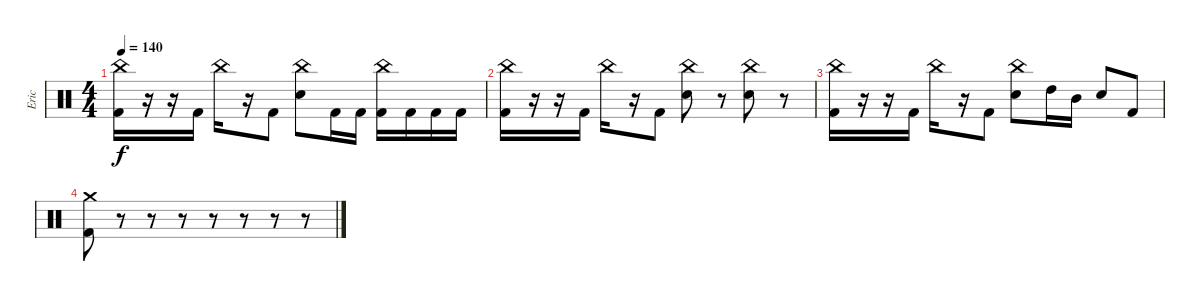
\track ("Eric" "Eric") {instrument percussion}
\staff {score}
\articulation defaults
\ts (4 4)
\tempo 140
\clef neutral
\ks c
("China (hit)" "Kick (hit) 2").16{dy f} r.16 r.16 "Kick (hit) 2".16 "China (hit)".16 r.16 "Kick (hit) 2".8 ("China (hit)" "Electric Snare (hit)").8 "Kick (hit) 2".16 "Kick (hit) 2".16 ("China (hit)" "Kick (hit) 2").16 "Kick (hit) 2".16 "Kick (hit) 2".16 "Kick (hit) 2".16 |
("China (hit)" "Kick (hit) 2").16 r.16 r.16 "Kick (hit) 2".16 "China (hit)".16 r.16 "Kick (hit) 2".8 ("China (hit)" "Electric Snare (hit)").8 r.8 ("China (hit)" "Electric Snare (hit)").8 r.8 |
("China (hit)" "Kick (hit) 2").16 r.16 r.16 "Kick (hit) 2".16 "China (hit)".16 r.16 "Kick (hit) 2".8 ("China (hit)" "Electric Snare (hit)").8 "High Tom (hit)".16 "Mid Tom (hit)".16 "Electric Snare (hit)".8 "Kick (hit) 2".8 |
("Crash medium (hit)" "Kick (hit) 2").8 r.8 r.8 r.8 r.8 r.8 r.8 r.8
